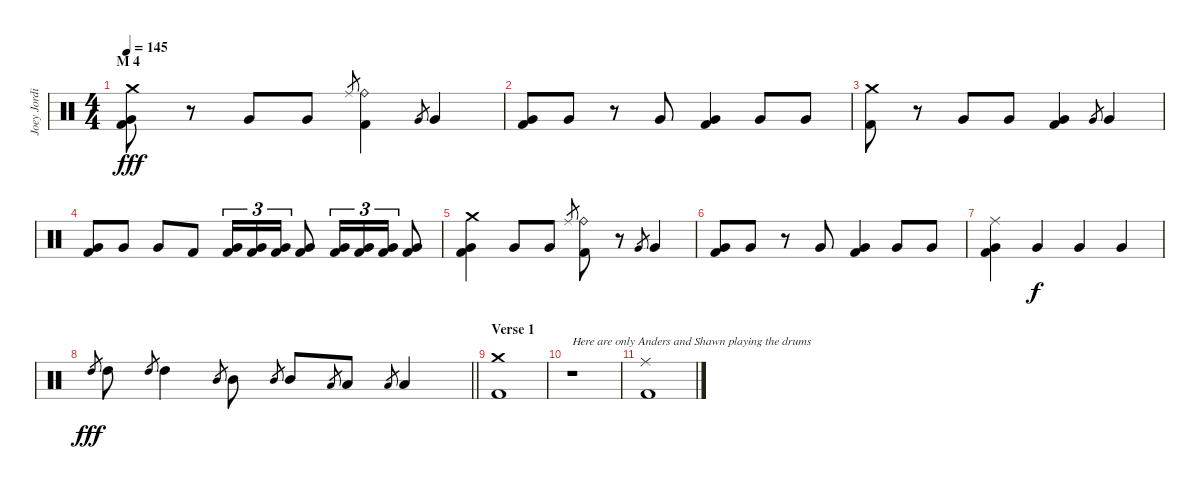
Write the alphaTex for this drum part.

\track ("Joey Jordison" "Joey Jordi") {instrument percussion}
\staff {score}
\articulation defaults
\ts (4 4)
\section ("" "M 4")
\tempo 145
\clef neutral
\ks c
("Crash medium (hit)" "Very Low Tom (hit)" "Kick (hit) 2").8{dy fff} r.8 "Very Low Tom (hit)".8 "Very Low Tom (hit)".8 "Ride (middle)".8{gr} ("Ride (bell)" "Kick (hit) 2").4 "Very Low Tom (hit)".8{gr} "Very Low Tom (hit)".4 |
("Very Low Tom (hit)" "Kick (hit) 2").8 "Very Low Tom (hit)".8 r.8 "Very Low Tom (hit)".8 ("Very Low Tom (hit)" "Kick (hit) 2").4 "Very Low Tom (hit)".8 "Very Low Tom (hit)".8 |
("Crash medium (hit)" "Kick (hit) 2").8 r.8 "Very Low Tom (hit)".8 "Very Low Tom (hit)".8 ("Very Low Tom (hit)" "Kick (hit) 2").4 "Very Low Tom (hit)".8{gr} "Very Low Tom (hit)".4 |
("Very Low Tom (hit)" "Kick (hit) 2").8 "Very Low Tom (hit)".8 "Very Low Tom (hit)".8 "Kick (hit) 2".8 ("Very Low Tom (hit)" "Kick (hit) 2").16{tu (3 2)} ("Very Low Tom (hit)" "Kick (hit) 2").16{tu (3 2)} ("Very Low Tom (hit)" "Kick (hit) 2").16{tu (3 2)} ("Very Low Tom (hit)" "Kick (hit) 2").8 ("Very Low Tom (hit)" "Kick (hit) 2").16{tu (3 2)} ("Very Low Tom (hit)" "Kick (hit) 2").16{tu (3 2)} ("Very Low Tom (hit)" "Kick (hit) 2").16{tu (3 2)} ("Very Low Tom (hit)" "Kick (hit) 2").8 |
("Crash medium (hit)" "Very Low Tom (hit)" "Kick (hit) 2").4 "Very Low Tom (hit)".8 "Very Low Tom (hit)".8 "Ride (middle)".8{gr} ("Ride (bell)" "Kick (hit) 2").8 r.8 "Very Low Tom (hit)".8{gr} "Very Low Tom (hit)".4 |
("Very Low Tom (hit)" "Kick (hit) 2").8 "Very Low Tom (hit)".8 r.8 "Very Low Tom (hit)".8 ("Very Low Tom (hit)" "Kick (hit) 2").4 "Very Low Tom (hit)".8 "Very Low Tom (hit)".8 |
("Ride (middle)" "Very Low Tom (hit)" "Kick (hit) 2").4 "Very Low Tom (hit)".4{dy f} "Very Low Tom (hit)".4 "Very Low Tom (hit)".4 |
\barLineRight lightlight "High Tom (hit)".8{gr dy fff} "High Tom (hit)".8 "High Tom (hit)".8{gr} "High Tom (hit)".4 "Mid Tom (hit)".8{gr} "Mid Tom (hit)".8 "Mid Tom (hit)".8{gr} "Mid Tom (hit)".8 "Low Tom (hit)".8{gr} "Low Tom (hit)".8 "Low Tom (hit)".8{gr} "Low Tom (hit)".4
|
\section ("" "Verse 1")
("Crash medium (hit)" "Kick (hit) 2").1 |
r.1{txt "Here are only Anders and Shawn playing the drums"} |
("Ride (middle)" "Kick (hit) 2").1
